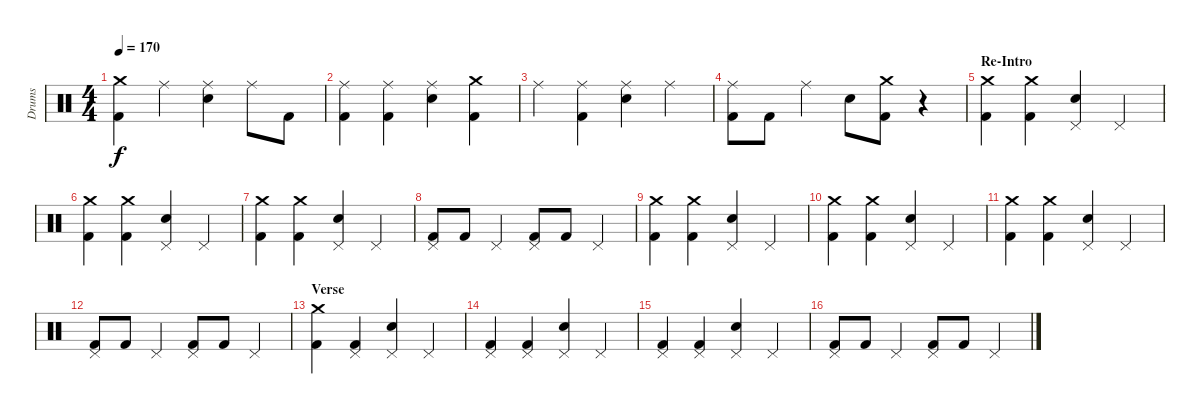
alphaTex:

\track ("Drums" "Drums") {instrument percussion}
\staff {score}
\articulation defaults
\ts (4 4)
\tempo 170
\clef neutral
\ks c
("Crash medium (hit)" "Kick (hit) 2").4{dy f} "Ride (middle)".4 ("Ride (middle)" "Electric Snare (hit)").4 "Ride (middle)".8 "Kick (hit) 2".8 |
("Ride (middle)" "Kick (hit) 2").4 ("Ride (middle)" "Kick (hit) 2").4 ("Ride (middle)" "Electric Snare (hit)").4 ("Crash medium (hit)" "Kick (hit) 2").4 |
"Ride (middle)".4 ("Ride (middle)" "Kick (hit) 2").4 ("Ride (middle)" "Electric Snare (hit)").4 "Ride (middle)".4 |
("Ride (middle)" "Kick (hit) 2").8 "Kick (hit) 2".8 "Ride (middle)".4 "Electric Snare (hit)".8 ("Crash medium (hit)" "Kick (hit) 2").8 r.4 |
\section ("" "Re-Intro")
("Crash medium (hit)" "Kick (hit) 2").4 ("Crash medium (hit)" "Kick (hit) 2").4 ("Pedal Hi-Hat (hit)" "Electric Snare (hit)").4 "Pedal Hi-Hat (hit)".4 |
("Crash medium (hit)" "Kick (hit) 2").4 ("Crash medium (hit)" "Kick (hit) 2").4 ("Pedal Hi-Hat (hit)" "Electric Snare (hit)").4 "Pedal Hi-Hat (hit)".4 |
("Crash medium (hit)" "Kick (hit) 2").4 ("Crash medium (hit)" "Kick (hit) 2").4 ("Pedal Hi-Hat (hit)" "Electric Snare (hit)").4 "Pedal Hi-Hat (hit)".4 |
("Pedal Hi-Hat (hit)" "Kick (hit) 2").8 "Kick (hit) 2".8 "Pedal Hi-Hat (hit)".4 ("Pedal Hi-Hat (hit)" "Kick (hit) 2").8 "Kick (hit) 2".8 "Pedal Hi-Hat (hit)".4 |
("Crash medium (hit)" "Kick (hit) 2").4 ("Crash medium (hit)" "Kick (hit) 2").4 ("Pedal Hi-Hat (hit)" "Electric Snare (hit)").4 "Pedal Hi-Hat (hit)".4 |
("Crash medium (hit)" "Kick (hit) 2").4 ("Crash medium (hit)" "Kick (hit) 2").4 ("Pedal Hi-Hat (hit)" "Electric Snare (hit)").4 "Pedal Hi-Hat (hit)".4 |
("Crash medium (hit)" "Kick (hit) 2").4 ("Crash medium (hit)" "Kick (hit) 2").4 ("Pedal Hi-Hat (hit)" "Electric Snare (hit)").4 "Pedal Hi-Hat (hit)".4 |
("Pedal Hi-Hat (hit)" "Kick (hit) 2").8 "Kick (hit) 2".8 "Pedal Hi-Hat (hit)".4 ("Pedal Hi-Hat (hit)" "Kick (hit) 2").8 "Kick (hit) 2".8 "Pedal Hi-Hat (hit)".4 |
\section ("" "Verse")
("Crash medium (hit)" "Kick (hit) 2").4 ("Pedal Hi-Hat (hit)" "Kick (hit) 2").4 ("Pedal Hi-Hat (hit)" "Electric Snare (hit)").4 "Pedal Hi-Hat (hit)".4 |
("Pedal Hi-Hat (hit)" "Kick (hit) 2").4 ("Pedal Hi-Hat (hit)" "Kick (hit) 2").4 ("Pedal Hi-Hat (hit)" "Electric Snare (hit)").4 "Pedal Hi-Hat (hit)".4 |
("Pedal Hi-Hat (hit)" "Kick (hit) 2").4 ("Pedal Hi-Hat (hit)" "Kick (hit) 2").4 ("Pedal Hi-Hat (hit)" "Electric Snare (hit)").4 "Pedal Hi-Hat (hit)".4 |
("Pedal Hi-Hat (hit)" "Kick (hit) 2").8 "Kick (hit) 2".8 "Pedal Hi-Hat (hit)".4 ("Pedal Hi-Hat (hit)" "Kick (hit) 2").8 "Kick (hit) 2".8 "Pedal Hi-Hat (hit)".4
